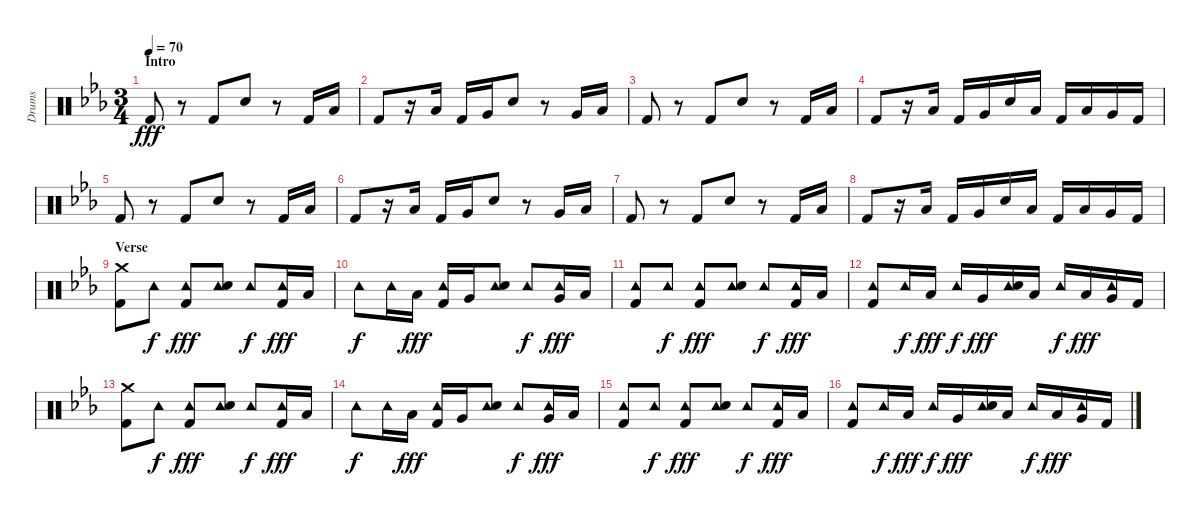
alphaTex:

\track ("Drums" "Drums") {instrument percussion}
\staff {score}
\articulation defaults
\ts (3 4)
\section ("" "Intro")
\tempo 70
\clef neutral
\ks cminor "Kick (hit) 2".8{dy fff}
r.8 "Kick (hit) 2".8 "Snare (hit) 2".8 r.8 "Kick (hit) 2".16 "Low Floor Tom (hit)".16 |
"Kick (hit) 2".8 r.16 "Low Floor Tom (hit)".16 "Kick (hit) 2".16 "Very Low Tom (hit)".16 "Snare (hit) 2".8 r.8 "Very Low Tom (hit)".16 "Low Floor Tom (hit)".16 |
"Kick (hit) 2".8 r.8 "Kick (hit) 2".8 "Snare (hit) 2".8 r.8 "Kick (hit) 2".16 "Low Floor Tom (hit)".16 |
"Kick (hit) 2".8 r.16 "Low Floor Tom (hit)".16 "Kick (hit) 2".16 "Very Low Tom (hit)".16 "Snare (hit) 2".16 "Low Floor Tom (hit)".16 "Kick (hit) 2".16 "Low Floor Tom (hit)".16 "Very Low Tom (hit)".16 "Kick (hit) 2".16 |
"Kick (hit) 2".8 r.8 "Kick (hit) 2".8 "Snare (hit) 2".8 r.8 "Kick (hit) 2".16 "Low Floor Tom (hit)".16 |
"Kick (hit) 2".8 r.16 "Low Floor Tom (hit)".16 "Kick (hit) 2".16 "Very Low Tom (hit)".16 "Snare (hit) 2".8 r.8 "Very Low Tom (hit)".16 "Low Floor Tom (hit)".16 |
"Kick (hit) 2".8 r.8 "Kick (hit) 2".8 "Snare (hit) 2".8 r.8 "Kick (hit) 2".16 "Low Floor Tom (hit)".16 |
"Kick (hit) 2".8 r.16 "Low Floor Tom (hit)".16 "Kick (hit) 2".16 "Very Low Tom (hit)".16 "Snare (hit) 2".16 "Low Floor Tom (hit)".16 "Kick (hit) 2".16 "Low Floor Tom (hit)".16 "Very Low Tom (hit)".16 "Kick (hit) 2".16 |
\section ("" "Verse")
("Crash medium (hit)" "Kick (hit) 2").8 "Tambourine (hit)".8{dy f} ("Tambourine (hit)" "Kick (hit) 2").8{dy fff} ("Tambourine (hit)" "Snare (hit) 2").8 "Tambourine (hit)".8{dy f} ("Tambourine (hit)" "Kick (hit) 2").16{dy fff} "Low Floor Tom (hit)".16 |
"Tambourine (hit)".8{dy f} "Tambourine (hit)".16 "Low Floor Tom (hit)".16{dy fff} ("Tambourine (hit)" "Kick (hit) 2").16 "Very Low Tom (hit)".16 ("Tambourine (hit)" "Snare (hit) 2").8 "Tambourine (hit)".8{dy f} ("Tambourine (hit)" "Very Low Tom (hit)").16{dy fff} "Low Floor Tom (hit)".16 |
("Tambourine (hit)" "Kick (hit) 2").8 "Tambourine (hit)".8{dy f} ("Tambourine (hit)" "Kick (hit) 2").8{dy fff} ("Tambourine (hit)" "Snare (hit) 2").8 "Tambourine (hit)".8{dy f} ("Tambourine (hit)" "Kick (hit) 2").16{dy fff} "Low Floor Tom (hit)".16 |
("Tambourine (hit)" "Kick (hit) 2").8 "Tambourine (hit)".16{dy f} "Low Floor Tom (hit)".16{dy fff} "Tambourine (hit)".16{dy f} "Very Low Tom (hit)".16{dy fff} ("Tambourine (hit)" "Snare (hit) 2").16 "Low Floor Tom (hit)".16 "Tambourine (hit)".16{dy f} "Low Floor Tom (hit)".16{dy fff} ("Tambourine (hit)" "Very Low Tom (hit)").16 "Kick (hit) 2".16 |
("Crash medium (hit)" "Kick (hit) 2").8 "Tambourine (hit)".8{dy f} ("Tambourine (hit)" "Kick (hit) 2").8{dy fff} ("Tambourine (hit)" "Snare (hit) 2").8 "Tambourine (hit)".8{dy f} ("Tambourine (hit)" "Kick (hit) 2").16{dy fff} "Low Floor Tom (hit)".16 |
"Tambourine (hit)".8{dy f} "Tambourine (hit)".16 "Low Floor Tom (hit)".16{dy fff} ("Tambourine (hit)" "Kick (hit) 2").16 "Very Low Tom (hit)".16 ("Tambourine (hit)" "Snare (hit) 2").8 "Tambourine (hit)".8{dy f} ("Tambourine (hit)" "Very Low Tom (hit)").16{dy fff} "Low Floor Tom (hit)".16 |
("Tambourine (hit)" "Kick (hit) 2").8 "Tambourine (hit)".8{dy f} ("Tambourine (hit)" "Kick (hit) 2").8{dy fff} ("Tambourine (hit)" "Snare (hit) 2").8 "Tambourine (hit)".8{dy f} ("Tambourine (hit)" "Kick (hit) 2").16{dy fff} "Low Floor Tom (hit)".16 |
("Tambourine (hit)" "Kick (hit) 2").8 "Tambourine (hit)".16{dy f} "Low Floor Tom (hit)".16{dy fff} "Tambourine (hit)".16{dy f} "Very Low Tom (hit)".16{dy fff} ("Tambourine (hit)" "Snare (hit) 2").16 "Low Floor Tom (hit)".16 "Tambourine (hit)".16{dy f} "Low Floor Tom (hit)".16{dy fff} ("Tambourine (hit)" "Very Low Tom (hit)").16 "Kick (hit) 2".16
